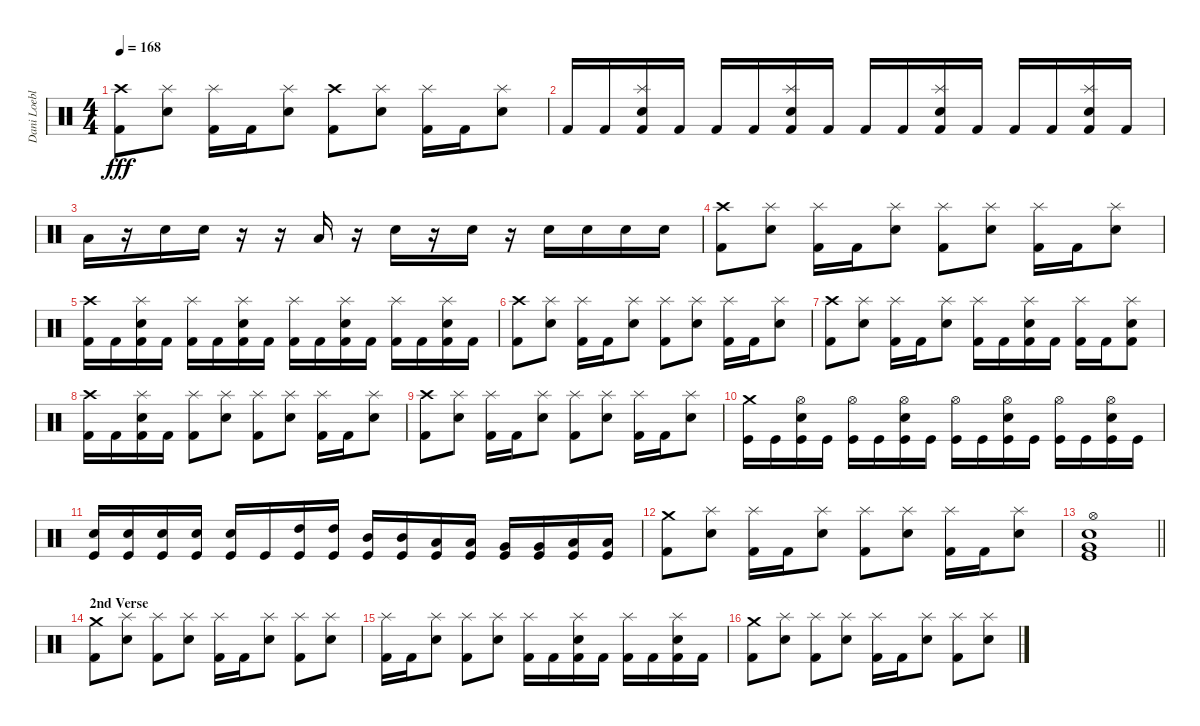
\track ("Dani Loeble" "Dani Loebl") {instrument percussion}
\staff {score}
\articulation defaults
\ts (4 4)
\tempo 168
\clef neutral
\ks c
("Crash high (hit)" "Kick (hit) 2").8{dy fff} ("Splash (hit)" "Electric Snare (hit)").8 ("Splash (hit)" "Kick (hit) 2").16 "Kick (hit) 2".16 ("Splash (hit)" "Electric Snare (hit)").8 ("Crash high (hit)" "Kick (hit) 2").8 ("Splash (hit)" "Electric Snare (hit)").8 ("Splash (hit)" "Kick (hit) 2").16 "Kick (hit) 2".16 ("Splash (hit)" "Electric Snare (hit)").8 |
"Kick (hit) 2".16 "Kick (hit) 2".16 ("Splash (hit)" "Electric Snare (hit)" "Kick (hit) 2").16 "Kick (hit) 2".16 "Kick (hit) 2".16 "Kick (hit) 2".16 ("Splash (hit)" "Electric Snare (hit)" "Kick (hit) 2").16 "Kick (hit) 2".16 "Kick (hit) 2".16 "Kick (hit) 2".16 ("Splash (hit)" "Electric Snare (hit)" "Kick (hit) 2").16 "Kick (hit) 2".16 "Kick (hit) 2".16 "Kick (hit) 2".16 ("Splash (hit)" "Electric Snare (hit)" "Kick (hit) 2").16 "Kick (hit) 2".16 |
"Low Tom (hit)".16 r.16 "Electric Snare (hit)".16 "Electric Snare (hit)".16 r.16 r.16 "Low Tom (hit)".16 r.16 "Electric Snare (hit)".16 r.16 "Electric Snare (hit)".16 r.16 "Electric Snare (hit)".16 "Electric Snare (hit)".16 "Electric Snare (hit)".16 "Electric Snare (hit)".16 |
("Crash high (hit)" "Kick (hit) 2").8 ("Splash (hit)" "Electric Snare (hit)").8 ("Splash (hit)" "Kick (hit) 2").16 "Kick (hit) 2".16 ("Splash (hit)" "Electric Snare (hit)").8 ("Splash (hit)" "Kick (hit) 2").8 ("Splash (hit)" "Electric Snare (hit)").8 ("Splash (hit)" "Kick (hit) 2").16 "Kick (hit) 2".16 ("Splash (hit)" "Electric Snare (hit)").8 |
("Crash high (hit)" "Kick (hit) 2").16 "Kick (hit) 2".16 ("Splash (hit)" "Electric Snare (hit)" "Kick (hit) 2").16 "Kick (hit) 2".16 ("Splash (hit)" "Kick (hit) 2").16 "Kick (hit) 2".16 ("Splash (hit)" "Electric Snare (hit)" "Kick (hit) 2").16 "Kick (hit) 2".16 ("Splash (hit)" "Kick (hit) 2").16 "Kick (hit) 2".16 ("Splash (hit)" "Electric Snare (hit)" "Kick (hit) 2").16 "Kick (hit) 2".16 ("Splash (hit)" "Kick (hit) 2").16 "Kick (hit) 2".16 ("Splash (hit)" "Electric Snare (hit)" "Kick (hit) 2").16 "Kick (hit) 2".16 |
("Crash high (hit)" "Kick (hit) 2").8 ("Splash (hit)" "Electric Snare (hit)").8 ("Splash (hit)" "Kick (hit) 2").16 "Kick (hit) 2".16 ("Splash (hit)" "Electric Snare (hit)").8 ("Splash (hit)" "Kick (hit) 2").8 ("Splash (hit)" "Electric Snare (hit)").8 ("Splash (hit)" "Kick (hit) 2").16 "Kick (hit) 2".16 ("Splash (hit)" "Electric Snare (hit)").8 |
("Crash high (hit)" "Kick (hit) 2").8 ("Splash (hit)" "Electric Snare (hit)").8 ("Splash (hit)" "Kick (hit) 2").16 "Kick (hit) 2".16 ("Splash (hit)" "Electric Snare (hit)").8 ("Splash (hit)" "Kick (hit) 2").16 "Kick (hit) 2".16 ("Splash (hit)" "Electric Snare (hit)" "Kick (hit) 2").16 "Kick (hit) 2".16 ("Splash (hit)" "Kick (hit) 2").16 "Kick (hit) 2".16 ("Splash (hit)" "Electric Snare (hit)" "Kick (hit) 2").8 |
("Crash high (hit)" "Kick (hit) 2").16 "Kick (hit) 2".16 ("Splash (hit)" "Electric Snare (hit)" "Kick (hit) 2").16 "Kick (hit) 2".16 ("Splash (hit)" "Kick (hit) 2").8 ("Splash (hit)" "Electric Snare (hit)").8 ("Splash (hit)" "Kick (hit) 2").8 ("Splash (hit)" "Electric Snare (hit)").8 ("Splash (hit)" "Kick (hit) 2").16 "Kick (hit) 2".16 ("Splash (hit)" "Electric Snare (hit)").8 |
("Crash high (hit)" "Kick (hit) 2").8 ("Splash (hit)" "Electric Snare (hit)").8 ("Splash (hit)" "Kick (hit) 2").16 "Kick (hit) 2".16 ("Splash (hit)" "Electric Snare (hit)").8 ("Splash (hit)" "Kick (hit) 2").8 ("Splash (hit)" "Electric Snare (hit)").8 ("Splash (hit)" "Kick (hit) 2").16 "Kick (hit) 2".16 ("Splash (hit)" "Electric Snare (hit)").8 |
("Crash medium (hit)" "Kick (hit)").16 "Kick (hit)".16 ("Hi-Hat (open)" "Electric Snare (hit)" "Kick (hit)").16 "Kick (hit)".16 ("Hi-Hat (open)" "Kick (hit)").16 "Kick (hit)".16 ("Hi-Hat (open)" "Electric Snare (hit)" "Kick (hit)").16 "Kick (hit)".16 ("Hi-Hat (open)" "Kick (hit)").16 "Kick (hit)".16 ("Hi-Hat (open)" "Electric Snare (hit)" "Kick (hit)").16 "Kick (hit)".16 ("Hi-Hat (open)" "Kick (hit)").16 "Kick (hit)".16 ("Hi-Hat (open)" "Electric Snare (hit)" "Kick (hit)").16 "Kick (hit)".16 |
("Electric Snare (hit)" "Kick (hit)").16 ("Electric Snare (hit)" "Kick (hit)").16 ("Electric Snare (hit)" "Kick (hit)").16 ("Electric Snare (hit)" "Kick (hit)").16 ("Electric Snare (hit)" "Kick (hit)").16 "Kick (hit)".16 ("High Tom (hit)" "Kick (hit)").16 ("High Tom (hit)" "Kick (hit)").16 ("Mid Tom (hit)" "Kick (hit)").16 ("Mid Tom (hit)" "Kick (hit)").16 ("Low Tom (hit)" "Kick (hit)").16 ("Low Tom (hit)" "Kick (hit)").16 ("Very Low Tom (hit)" "Kick (hit)").16 ("Very Low Tom (hit)" "Kick (hit)").16 ("Low Floor Tom (hit)" "Kick (hit)").16 ("Low Floor Tom (hit)" "Kick (hit)").16 |
("Crash medium (hit)" "Kick (hit) 2").8 ("Splash (hit)" "Electric Snare (hit)").8 ("Splash (hit)" "Kick (hit) 2").16 "Kick (hit) 2".16 ("Splash (hit)" "Electric Snare (hit)").8 ("Splash (hit)" "Kick (hit) 2").8 ("Splash (hit)" "Electric Snare (hit)").8 ("Splash (hit)" "Kick (hit) 2").16 "Kick (hit) 2".16 ("Splash (hit)" "Electric Snare (hit)").8 |
\barLineRight lightlight
("Hi-Hat (open)" "Electric Snare (hit)" "Very Low Tom (hit)" "Kick (hit)").1 |
\section ("" "2nd Verse")
("Crash medium (hit)" "Kick (hit) 2").8 ("Splash (hit)" "Electric Snare (hit)").8 ("Splash (hit)" "Kick (hit) 2").8 ("Splash (hit)" "Electric Snare (hit)").8 ("Splash (hit)" "Kick (hit) 2").16 "Kick (hit) 2".16 ("Splash (hit)" "Electric Snare (hit)").8 ("Splash (hit)" "Kick (hit) 2").8 ("Splash (hit)" "Electric Snare (hit)").8 |
("Splash (hit)" "Kick (hit) 2").16 "Kick (hit) 2".16 ("Splash (hit)" "Electric Snare (hit)").8 ("Splash (hit)" "Kick (hit) 2").8 ("Splash (hit)" "Electric Snare (hit)").8 ("Splash (hit)" "Kick (hit) 2").16 "Kick (hit) 2".16 ("Splash (hit)" "Electric Snare (hit)" "Kick (hit) 2").16 "Kick (hit) 2".16 ("Splash (hit)" "Kick (hit) 2").16 "Kick (hit) 2".16 ("Splash (hit)" "Electric Snare (hit)" "Kick (hit) 2").16 "Kick (hit) 2".16 |
("Crash medium (hit)" "Kick (hit) 2").8 ("Splash (hit)" "Electric Snare (hit)").8 ("Splash (hit)" "Kick (hit) 2").8 ("Splash (hit)" "Electric Snare (hit)").8 ("Splash (hit)" "Kick (hit) 2").16 "Kick (hit) 2".16 ("Splash (hit)" "Electric Snare (hit)").8 ("Splash (hit)" "Kick (hit) 2").8 ("Splash (hit)" "Electric Snare (hit)").8
